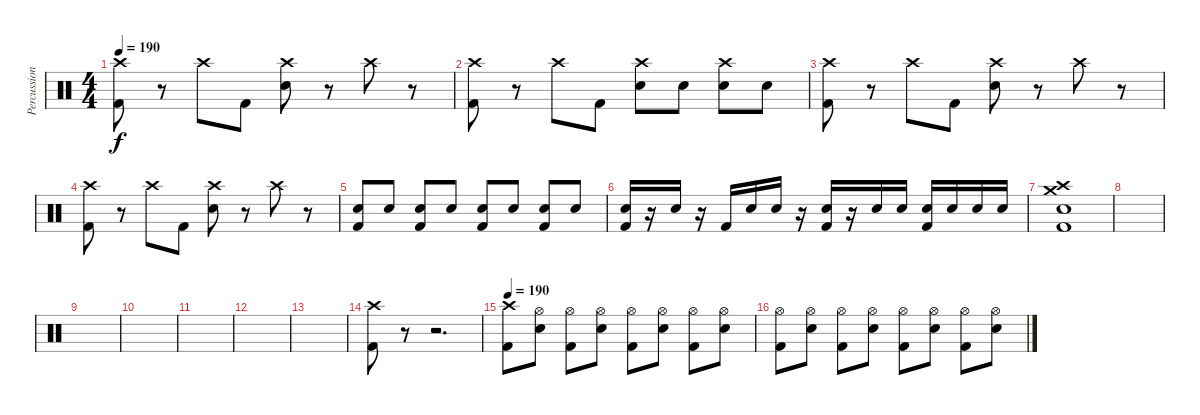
\track ("Percussion" "Percussion") {instrument percussion}
\staff {score}
\articulation defaults
\ts (4 4)
\tempo 190
\clef neutral
\ks c
("Crash high (hit)" "Kick (hit) 2").8{dy f} r.8 "Crash high (hit)".8 "Kick (hit) 2".8 ("Crash high (hit)" "Snare (hit) 2").8 r.8 "Crash high (hit)".8 r.8 |
("Crash high (hit)" "Kick (hit) 2").8 r.8 "Crash high (hit)".8 "Kick (hit) 2".8 ("Crash high (hit)" "Snare (hit) 2").8 "Snare (hit) 2".8 ("Crash high (hit)" "Snare (hit) 2").8 "Snare (hit) 2".8 |
("Crash high (hit)" "Kick (hit) 2").8 r.8 "Crash high (hit)".8 "Kick (hit) 2".8 ("Crash high (hit)" "Snare (hit) 2").8 r.8 "Crash high (hit)".8 r.8 |
("Crash high (hit)" "Kick (hit) 2").8 r.8 "Crash high (hit)".8 "Kick (hit) 2".8 ("Crash high (hit)" "Snare (hit) 2").8 r.8 "Crash high (hit)".8 r.8 |
("Snare (hit) 2" "Kick (hit) 2").8 "Snare (hit) 2".8 ("Snare (hit) 2" "Kick (hit) 2").8 "Snare (hit) 2".8 ("Snare (hit) 2" "Kick (hit) 2").8 "Snare (hit) 2".8 ("Snare (hit) 2" "Kick (hit) 2").8 "Snare (hit) 2".8 |
("Snare (hit) 2" "Kick (hit) 2").16 r.16 "Snare (hit) 2".16 r.16 "Kick (hit) 2".16 "Snare (hit) 2".16 "Snare (hit) 2".16 r.16 ("Snare (hit) 2" "Kick (hit) 2").16 r.16 "Snare (hit) 2".16 "Snare (hit) 2".16 ("Snare (hit) 2" "Kick (hit) 2").16 "Snare (hit) 2".16 "Snare (hit) 2".16 "Snare (hit) 2".16 |
("Crash medium (hit)" "Crash high (hit)" "Snare (hit) 2" "Kick (hit) 2").1 |
|
|
|
|
|
|
("Crash high (hit)" "Kick (hit) 2").8{volume 13} r.8 r.2{d} |
\tempo 190
("Crash high (hit)" "Kick (hit) 2").8{volume 13} ("Hi-Hat (open)" "Snare (hit) 2").8 ("Hi-Hat (open)" "Kick (hit) 2").8 ("Hi-Hat (open)" "Snare (hit) 2").8 ("Hi-Hat (open)" "Kick (hit) 2").8 ("Hi-Hat (open)" "Snare (hit) 2").8 ("Hi-Hat (open)" "Kick (hit) 2").8 ("Hi-Hat (open)" "Snare (hit) 2").8 |
("Hi-Hat (open)" "Kick (hit) 2").8 ("Hi-Hat (open)" "Snare (hit) 2").8 ("Hi-Hat (open)" "Kick (hit) 2").8 ("Hi-Hat (open)" "Snare (hit) 2").8 ("Hi-Hat (open)" "Kick (hit) 2").8 ("Hi-Hat (open)" "Snare (hit) 2").8 ("Hi-Hat (open)" "Kick (hit) 2").8 ("Hi-Hat (open)" "Snare (hit) 2").8
